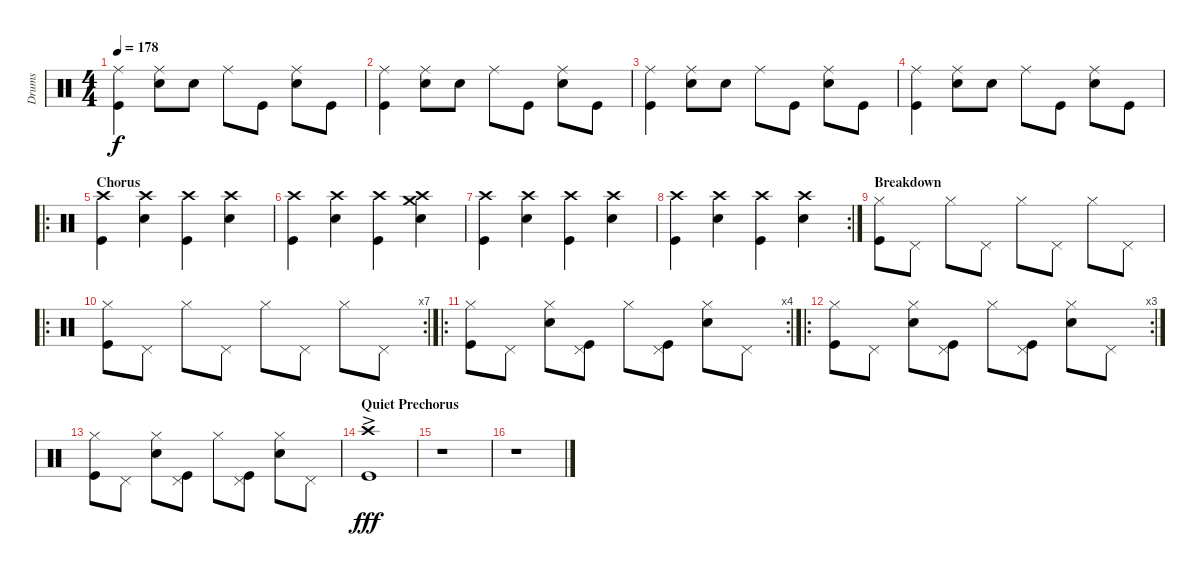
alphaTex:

\track ("Drums" "Drums") {instrument percussion}
\staff {score}
\articulation defaults
\ts (4 4)
\tempo 178
\clef neutral
\ks c
("Ride (middle)" "Kick (hit)").4{dy f} ("Ride (middle)" "Snare (hit) 2").8 "Snare (hit) 2".8 "Ride (middle)".8 "Kick (hit)".8 ("Ride (middle)" "Snare (hit) 2").8 "Kick (hit)".8 |
("Ride (middle)" "Kick (hit)").4 ("Ride (middle)" "Snare (hit) 2").8 "Snare (hit) 2".8 "Ride (middle)".8 "Kick (hit)".8 ("Ride (middle)" "Snare (hit) 2").8 "Kick (hit)".8 |
("Ride (middle)" "Kick (hit)").4 ("Ride (middle)" "Snare (hit) 2").8 "Snare (hit) 2".8 "Ride (middle)".8 "Kick (hit)".8 ("Ride (middle)" "Snare (hit) 2").8 "Kick (hit)".8 |
("Ride (middle)" "Kick (hit)").4 ("Ride (middle)" "Snare (hit) 2").8 "Snare (hit) 2".8 "Ride (middle)".8 "Kick (hit)".8 ("Ride (middle)" "Snare (hit) 2").8 "Kick (hit)".8 |
\ro
\section ("" "Chorus")
("Crash high (hit)" "Kick (hit)").4 ("Crash high (hit)" "Snare (hit) 2").4 ("Crash high (hit)" "Kick (hit)").4 ("Crash high (hit)" "Snare (hit) 2").4 |
("Crash high (hit)" "Kick (hit)").4 ("Crash high (hit)" "Snare (hit) 2").4 ("Crash high (hit)" "Kick (hit)").4 ("Crash high (hit)" "Crash medium (hit)" "Snare (hit) 2").4 |
("Crash high (hit)" "Kick (hit)").4 ("Crash high (hit)" "Snare (hit) 2").4 ("Crash high (hit)" "Kick (hit)").4 ("Crash high (hit)" "Snare (hit) 2").4 |
\rc 2
("Crash high (hit)" "Kick (hit)").4 ("Crash high (hit)" "Snare (hit) 2").4 ("Crash high (hit)" "Kick (hit)").4 ("Crash high (hit)" "Snare (hit) 2").4 |
\section ("" "Breakdown")
("Hi-Hat (closed)" "Kick (hit)").8 "Pedal Hi-Hat (hit)".8 "Hi-Hat (closed)".8 "Pedal Hi-Hat (hit)".8 "Hi-Hat (closed)".8 "Pedal Hi-Hat (hit)".8 "Hi-Hat (closed)".8 "Pedal Hi-Hat (hit)".8 |
\ro
\rc 7
("Hi-Hat (closed)" "Kick (hit)").8 "Pedal Hi-Hat (hit)".8 "Hi-Hat (closed)".8 "Pedal Hi-Hat (hit)".8 "Hi-Hat (closed)".8 "Pedal Hi-Hat (hit)".8 "Hi-Hat (closed)".8 "Pedal Hi-Hat (hit)".8 |
\ro
\rc 4
("Hi-Hat (closed)" "Kick (hit)").8 "Pedal Hi-Hat (hit)".8 ("Hi-Hat (closed)" "Snare (hit) 2").8 ("Pedal Hi-Hat (hit)" "Kick (hit)").8 "Hi-Hat (closed)".8 ("Pedal Hi-Hat (hit)" "Kick (hit)").8 ("Hi-Hat (closed)" "Snare (hit) 2").8 "Pedal Hi-Hat (hit)".8 |
\ro
\rc 3
("Hi-Hat (closed)" "Kick (hit)").8 "Pedal Hi-Hat (hit)".8 ("Hi-Hat (closed)" "Snare (hit) 2").8 ("Pedal Hi-Hat (hit)" "Kick (hit)").8 "Hi-Hat (closed)".8 ("Pedal Hi-Hat (hit)" "Kick (hit)").8 ("Hi-Hat (closed)" "Snare (hit) 2").8 "Pedal Hi-Hat (hit)".8 |
("Hi-Hat (closed)" "Kick (hit)").8 "Pedal Hi-Hat (hit)".8 ("Hi-Hat (closed)" "Snare (hit) 2").8 ("Pedal Hi-Hat (hit)" "Kick (hit)").8 "Hi-Hat (closed)".8 ("Pedal Hi-Hat (hit)" "Kick (hit)").8 ("Hi-Hat (closed)" "Snare (hit) 2").8 "Pedal Hi-Hat (hit)".8 |
\section ("" "Quiet Prechorus")
("Crash high (hit)"{ac} "Kick (hit)"{ac}).1{dy fff} |
r.1 |
r.1
